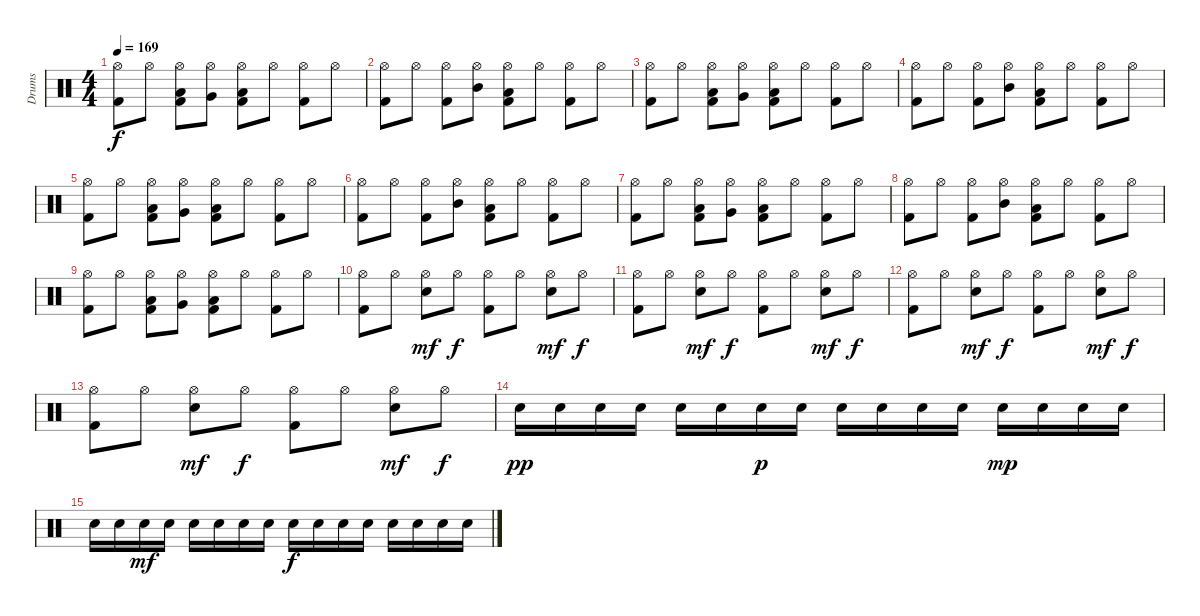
\track ("Drums" "Drums") {instrument percussion}
\staff {score}
\articulation defaults
\ts (4 4)
\tempo 169
\clef neutral
\ks c
("Hi-Hat (open)" "Kick (hit) 2").8{dy f} "Hi-Hat (open)".8 ("Hi-Hat (open)" "Low Tom (hit)" "Kick (hit) 2").8 ("Hi-Hat (open)" "Very Low Tom (hit)").8 ("Hi-Hat (open)" "Low Floor Tom (hit)" "Kick (hit) 2").8 "Hi-Hat (open)".8 ("Hi-Hat (open)" "Kick (hit) 2").8 "Hi-Hat (open)".8 |
("Hi-Hat (open)" "Kick (hit) 2").8 "Hi-Hat (open)".8 ("Hi-Hat (open)" "Kick (hit) 2").8 ("Hi-Hat (open)" "Mid Tom (hit)").8 ("Hi-Hat (open)" "Low Tom (hit)" "Kick (hit) 2").8 "Hi-Hat (open)".8 ("Hi-Hat (open)" "Kick (hit) 2").8 "Hi-Hat (open)".8 |
("Hi-Hat (open)" "Kick (hit) 2").8 "Hi-Hat (open)".8 ("Hi-Hat (open)" "Low Tom (hit)" "Kick (hit) 2").8 ("Hi-Hat (open)" "Very Low Tom (hit)").8 ("Hi-Hat (open)" "Low Floor Tom (hit)" "Kick (hit) 2").8 "Hi-Hat (open)".8 ("Hi-Hat (open)" "Kick (hit) 2").8 "Hi-Hat (open)".8 |
("Hi-Hat (open)" "Kick (hit) 2").8 "Hi-Hat (open)".8 ("Hi-Hat (open)" "Kick (hit) 2").8 ("Hi-Hat (open)" "Mid Tom (hit)").8 ("Hi-Hat (open)" "Low Tom (hit)" "Kick (hit) 2").8 "Hi-Hat (open)".8 ("Hi-Hat (open)" "Kick (hit) 2").8 "Hi-Hat (open)".8 |
("Hi-Hat (open)" "Kick (hit) 2").8 "Hi-Hat (open)".8 ("Hi-Hat (open)" "Low Tom (hit)" "Kick (hit) 2").8 ("Hi-Hat (open)" "Very Low Tom (hit)").8 ("Hi-Hat (open)" "Low Floor Tom (hit)" "Kick (hit) 2").8 "Hi-Hat (open)".8 ("Hi-Hat (open)" "Kick (hit) 2").8 "Hi-Hat (open)".8 |
("Hi-Hat (open)" "Kick (hit) 2").8 "Hi-Hat (open)".8 ("Hi-Hat (open)" "Kick (hit) 2").8 ("Hi-Hat (open)" "Mid Tom (hit)").8 ("Hi-Hat (open)" "Low Tom (hit)" "Kick (hit) 2").8 "Hi-Hat (open)".8 ("Hi-Hat (open)" "Kick (hit) 2").8 "Hi-Hat (open)".8 |
("Hi-Hat (open)" "Kick (hit) 2").8 "Hi-Hat (open)".8 ("Hi-Hat (open)" "Low Tom (hit)" "Kick (hit) 2").8 ("Hi-Hat (open)" "Very Low Tom (hit)").8 ("Hi-Hat (open)" "Low Floor Tom (hit)" "Kick (hit) 2").8 "Hi-Hat (open)".8 ("Hi-Hat (open)" "Kick (hit) 2").8 "Hi-Hat (open)".8 |
("Hi-Hat (open)" "Kick (hit) 2").8 "Hi-Hat (open)".8 ("Hi-Hat (open)" "Kick (hit) 2").8 ("Hi-Hat (open)" "Mid Tom (hit)").8 ("Hi-Hat (open)" "Low Tom (hit)" "Kick (hit) 2").8 "Hi-Hat (open)".8 ("Hi-Hat (open)" "Kick (hit) 2").8 "Hi-Hat (open)".8 |
("Hi-Hat (open)" "Kick (hit) 2").8 "Hi-Hat (open)".8 ("Hi-Hat (open)" "Low Tom (hit)" "Kick (hit) 2").8 ("Hi-Hat (open)" "Very Low Tom (hit)").8 ("Hi-Hat (open)" "Low Floor Tom (hit)" "Kick (hit) 2").8 "Hi-Hat (open)".8 ("Hi-Hat (open)" "Kick (hit) 2").8 "Hi-Hat (open)".8 |
("Hi-Hat (open)" "Kick (hit) 2").8 "Hi-Hat (open)".8 ("Hi-Hat (open)" "Electric Snare (hit)").8{dy mf} "Hi-Hat (open)".8{dy f} ("Hi-Hat (open)" "Kick (hit) 2").8 "Hi-Hat (open)".8 ("Hi-Hat (open)" "Electric Snare (hit)").8{dy mf} "Hi-Hat (open)".8{dy f} |
("Hi-Hat (open)" "Kick (hit) 2").8 "Hi-Hat (open)".8 ("Hi-Hat (open)" "Electric Snare (hit)").8{dy mf} "Hi-Hat (open)".8{dy f} ("Hi-Hat (open)" "Kick (hit) 2").8 "Hi-Hat (open)".8 ("Hi-Hat (open)" "Electric Snare (hit)").8{dy mf} "Hi-Hat (open)".8{dy f} |
("Hi-Hat (open)" "Kick (hit) 2").8 "Hi-Hat (open)".8 ("Hi-Hat (open)" "Electric Snare (hit)").8{dy mf} "Hi-Hat (open)".8{dy f} ("Hi-Hat (open)" "Kick (hit) 2").8 "Hi-Hat (open)".8 ("Hi-Hat (open)" "Electric Snare (hit)").8{dy mf} "Hi-Hat (open)".8{dy f} |
("Hi-Hat (open)" "Kick (hit) 2").8 "Hi-Hat (open)".8 ("Hi-Hat (open)" "Electric Snare (hit)").8{dy mf} "Hi-Hat (open)".8{dy f} ("Hi-Hat (open)" "Kick (hit) 2").8 "Hi-Hat (open)".8 ("Hi-Hat (open)" "Electric Snare (hit)").8{dy mf} "Hi-Hat (open)".8{dy f} |
"Electric Snare (hit)".16{dy pp} "Electric Snare (hit)".16 "Electric Snare (hit)".16 "Electric Snare (hit)".16 "Electric Snare (hit)".16 "Electric Snare (hit)".16 "Electric Snare (hit)".16{dy p} "Electric Snare (hit)".16 "Electric Snare (hit)".16 "Electric Snare (hit)".16 "Electric Snare (hit)".16 "Electric Snare (hit)".16 "Electric Snare (hit)".16{dy mp} "Electric Snare (hit)".16 "Electric Snare (hit)".16 "Electric Snare (hit)".16 |
"Electric Snare (hit)".16 "Electric Snare (hit)".16 "Electric Snare (hit)".16{dy mf} "Electric Snare (hit)".16 "Electric Snare (hit)".16 "Electric Snare (hit)".16 "Electric Snare (hit)".16 "Electric Snare (hit)".16 "Electric Snare (hit)".16{dy f} "Electric Snare (hit)".16 "Electric Snare (hit)".16 "Electric Snare (hit)".16 "Electric Snare (hit)".16 "Electric Snare (hit)".16 "Electric Snare (hit)".16 "Electric Snare (hit)".16
